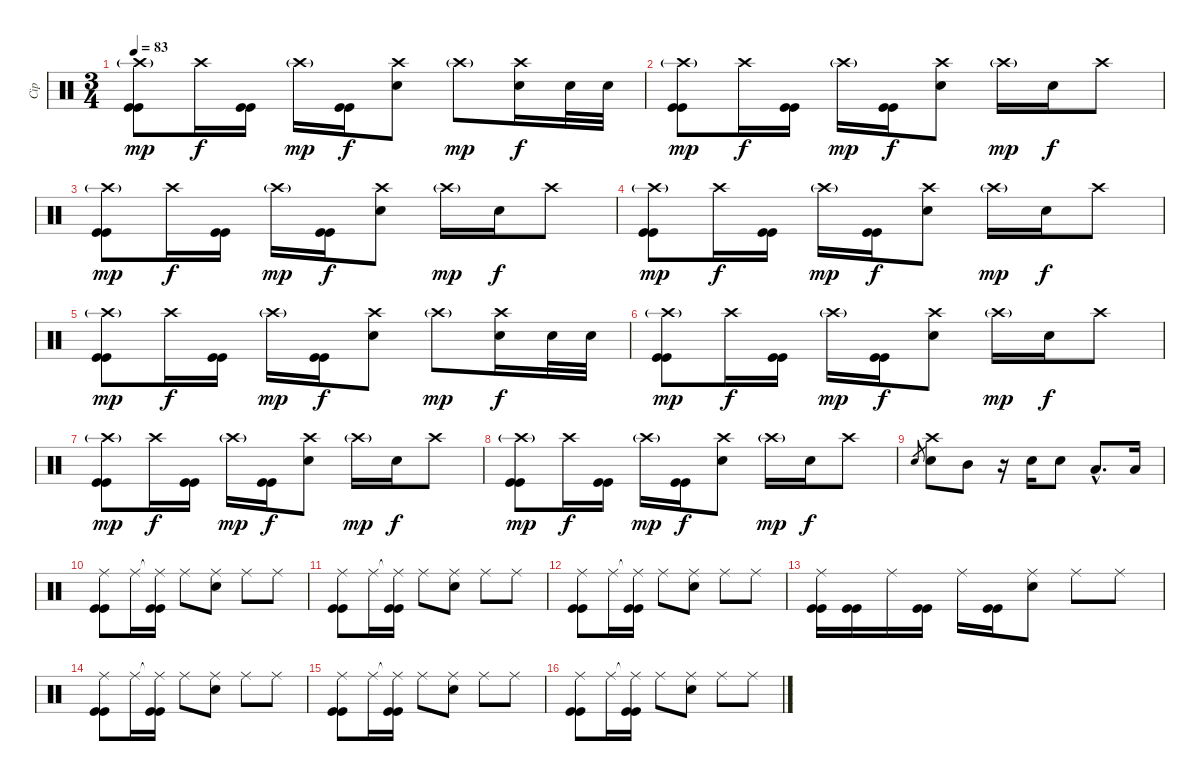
\track ("Cip" "Cip") {instrument percussion}
\staff {score}
\articulation defaults
\ts (3 4)
\tempo 83
\clef neutral
\ks c
("Crash high (hit)"{g} "Kick (hit)" "Kick (hit)").8{dy mp} "Crash high (hit)".16{dy f} ("Kick (hit)" "Kick (hit)").16 "Crash high (hit)"{g}.16{dy mp} ("Kick (hit)" "Kick (hit)").16{dy f} ("Crash high (hit)" "Electric Snare (hit)").8 "Crash high (hit)"{g}.8{dy mp} ("Crash high (hit)" "Electric Snare (hit)").16{dy f} "Electric Snare (hit)".32 "Electric Snare (hit)".32 |
("Crash high (hit)"{g} "Kick (hit)" "Kick (hit)").8{dy mp} "Crash high (hit)".16{dy f} ("Kick (hit)" "Kick (hit)").16 "Crash high (hit)"{g}.16{dy mp} ("Kick (hit)" "Kick (hit)").16{dy f} ("Crash high (hit)" "Electric Snare (hit)").8 "Crash high (hit)"{g}.16{dy mp} "Electric Snare (hit)".16{dy f} "Crash high (hit)".8 |
("Crash high (hit)"{g} "Kick (hit)" "Kick (hit)").8{dy mp} "Crash high (hit)".16{dy f} ("Kick (hit)" "Kick (hit)").16 "Crash high (hit)"{g}.16{dy mp} ("Kick (hit)" "Kick (hit)").16{dy f} ("Crash high (hit)" "Electric Snare (hit)").8 "Crash high (hit)"{g}.16{dy mp} "Electric Snare (hit)".16{dy f} "Crash high (hit)".8 |
("Crash high (hit)"{g} "Kick (hit)" "Kick (hit)").8{dy mp} "Crash high (hit)".16{dy f} ("Kick (hit)" "Kick (hit)").16 "Crash high (hit)"{g}.16{dy mp} ("Kick (hit)" "Kick (hit)").16{dy f} ("Crash high (hit)" "Electric Snare (hit)").8 "Crash high (hit)"{g}.16{dy mp} "Electric Snare (hit)".16{dy f} "Crash high (hit)".8 |
("Crash high (hit)"{g} "Kick (hit)" "Kick (hit)").8{dy mp} "Crash high (hit)".16{dy f} ("Kick (hit)" "Kick (hit)").16 "Crash high (hit)"{g}.16{dy mp} ("Kick (hit)" "Kick (hit)").16{dy f} ("Crash high (hit)" "Electric Snare (hit)").8 "Crash high (hit)"{g}.8{dy mp} ("Crash high (hit)" "Electric Snare (hit)").16{dy f} "Electric Snare (hit)".32 "Electric Snare (hit)".32 |
("Crash high (hit)"{g} "Kick (hit)" "Kick (hit)").8{dy mp} "Crash high (hit)".16{dy f} ("Kick (hit)" "Kick (hit)").16 "Crash high (hit)"{g}.16{dy mp} ("Kick (hit)" "Kick (hit)").16{dy f} ("Crash high (hit)" "Electric Snare (hit)").8 "Crash high (hit)"{g}.16{dy mp} "Electric Snare (hit)".16{dy f} "Crash high (hit)".8 |
("Crash high (hit)"{g} "Kick (hit)" "Kick (hit)").8{dy mp} "Crash high (hit)".16{dy f} ("Kick (hit)" "Kick (hit)").16 "Crash high (hit)"{g}.16{dy mp} ("Kick (hit)" "Kick (hit)").16{dy f} ("Crash high (hit)" "Electric Snare (hit)").8 "Crash high (hit)"{g}.16{dy mp} "Electric Snare (hit)".16{dy f} "Crash high (hit)".8 |
("Crash high (hit)"{g} "Kick (hit)" "Kick (hit)").8{dy mp} "Crash high (hit)".16{dy f} ("Kick (hit)" "Kick (hit)").16 "Crash high (hit)"{g}.16{dy mp} ("Kick (hit)" "Kick (hit)").16{dy f} ("Crash high (hit)" "Electric Snare (hit)").8 "Crash high (hit)"{g}.16{dy mp} "Electric Snare (hit)".16{dy f} "Crash high (hit)".8 |
"Snare (hit) 2".8{gr} ("Crash high (hit)" "Electric Snare (hit)").8 "Mid Tom (hit)".8 r.16 "Electric Snare (hit)".16 "Electric Snare (hit)".8 "Low Tom (hit)"{hac}.8{d} "Low Floor Tom (hit)".16 |
("Ride (middle)" "Kick (hit)" "Kick (hit)").8 "Ride (middle)".16 ("Ride (middle)"{t} "Kick (hit)" "Kick (hit)").16 "Ride (middle)".8 ("Ride (middle)" "Electric Snare (hit)").8 "Ride (middle)".8 "Ride (middle)".8 |
("Ride (middle)" "Kick (hit)" "Kick (hit)").8 "Ride (middle)".16 ("Ride (middle)"{t} "Kick (hit)" "Kick (hit)").16 "Ride (middle)".8 ("Ride (middle)" "Electric Snare (hit)").8 "Ride (middle)".8 "Ride (middle)".8 |
("Ride (middle)" "Kick (hit)" "Kick (hit)").8 "Ride (middle)".16 ("Ride (middle)"{t} "Kick (hit)" "Kick (hit)").16 "Ride (middle)".8 ("Ride (middle)" "Electric Snare (hit)").8 "Ride (middle)".8 "Ride (middle)".8 |
("Ride (middle)" "Kick (hit)" "Kick (hit)").16 ("Kick (hit)" "Kick (hit)").16 "Ride (middle)".16 ("Kick (hit)" "Kick (hit)").16 "Ride (middle)".16 ("Kick (hit)" "Kick (hit)").16 ("Ride (middle)" "Electric Snare (hit)").8 "Ride (middle)".8 "Ride (middle)".8 |
("Ride (middle)" "Kick (hit)" "Kick (hit)").8 "Ride (middle)".16 ("Ride (middle)"{t} "Kick (hit)" "Kick (hit)").16 "Ride (middle)".8 ("Ride (middle)" "Electric Snare (hit)").8 "Ride (middle)".8 "Ride (middle)".8 |
("Ride (middle)" "Kick (hit)" "Kick (hit)").8 "Ride (middle)".16 ("Ride (middle)"{t} "Kick (hit)" "Kick (hit)").16 "Ride (middle)".8 ("Ride (middle)" "Electric Snare (hit)").8 "Ride (middle)".8 "Ride (middle)".8 |
("Ride (middle)" "Kick (hit)" "Kick (hit)").8 "Ride (middle)".16 ("Ride (middle)"{t} "Kick (hit)" "Kick (hit)").16 "Ride (middle)".8 ("Ride (middle)" "Electric Snare (hit)").8 "Ride (middle)".8 "Ride (middle)".8
